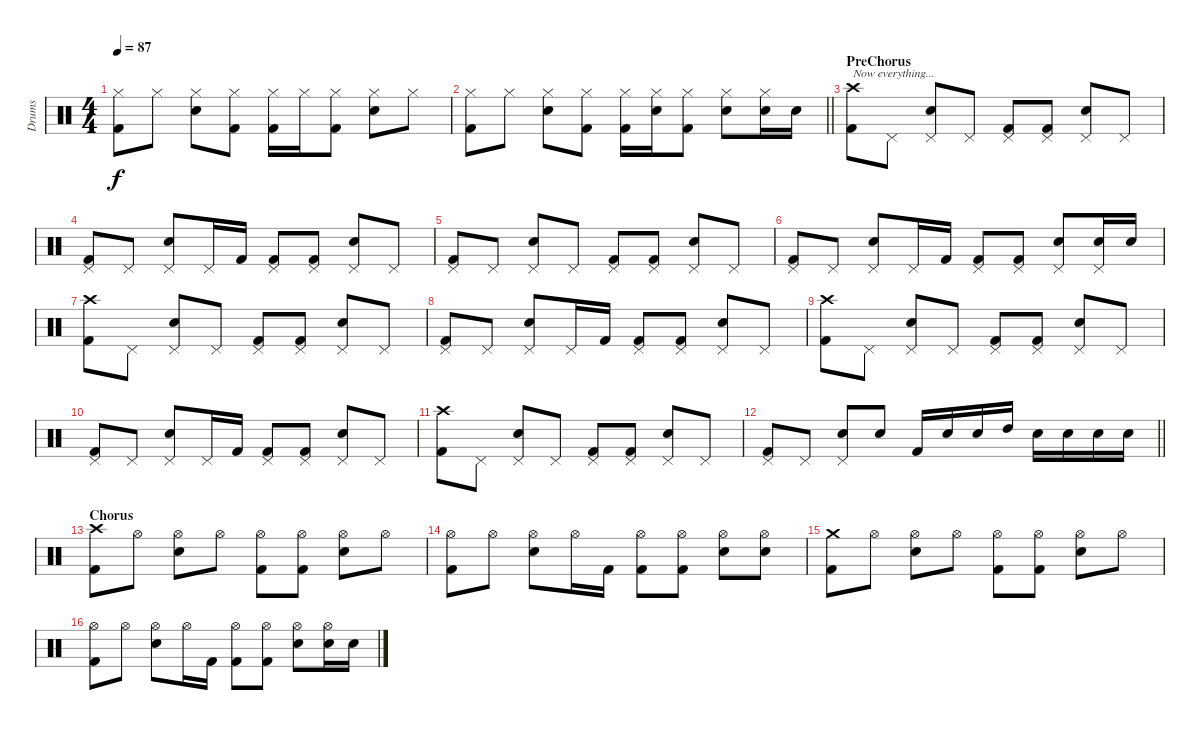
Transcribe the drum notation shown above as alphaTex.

\track ("Drums" "Drums") {instrument percussion}
\staff {score}
\articulation defaults
\ts (4 4)
\tempo 87
\clef neutral
\ks c
("Hi-Hat (closed)" "Kick (hit) 2").8{dy f} "Hi-Hat (closed)".8 ("Hi-Hat (closed)" "Electric Snare (hit)").8 ("Hi-Hat (closed)" "Kick (hit) 2").8 ("Hi-Hat (closed)" "Kick (hit) 2").16 "Hi-Hat (closed)".16 ("Hi-Hat (closed)" "Kick (hit) 2").8 ("Hi-Hat (closed)" "Electric Snare (hit)").8 "Hi-Hat (closed)".8 |
\barLineRight lightlight
("Hi-Hat (closed)" "Kick (hit) 2").8 "Hi-Hat (closed)".8 ("Hi-Hat (closed)" "Electric Snare (hit)").8 ("Hi-Hat (closed)" "Kick (hit) 2").8 ("Hi-Hat (closed)" "Kick (hit) 2").16 ("Hi-Hat (closed)" "Electric Snare (hit)").16 ("Hi-Hat (closed)" "Kick (hit) 2").8 ("Hi-Hat (closed)" "Electric Snare (hit)").8 ("Hi-Hat (closed)" "Electric Snare (hit)").16 "Electric Snare (hit)".16 |
\section ("" "PreChorus")
("Crash high (hit)" "Kick (hit) 2").8{txt "Now everything..."} "Pedal Hi-Hat (hit)".8 ("Pedal Hi-Hat (hit)" "Snare (hit) 2").8 "Pedal Hi-Hat (hit)".8 ("Pedal Hi-Hat (hit)" "Kick (hit) 2").8 ("Pedal Hi-Hat (hit)" "Kick (hit) 2").8 ("Pedal Hi-Hat (hit)" "Snare (hit) 2").8 "Pedal Hi-Hat (hit)".8 |
("Pedal Hi-Hat (hit)" "Kick (hit) 2").8 "Pedal Hi-Hat (hit)".8 ("Pedal Hi-Hat (hit)" "Snare (hit) 2").8 "Pedal Hi-Hat (hit)".16 "Kick (hit) 2".16 ("Pedal Hi-Hat (hit)" "Kick (hit) 2").8 ("Pedal Hi-Hat (hit)" "Kick (hit) 2").8 ("Pedal Hi-Hat (hit)" "Snare (hit) 2").8 "Pedal Hi-Hat (hit)".8 |
("Pedal Hi-Hat (hit)" "Kick (hit) 2").8 "Pedal Hi-Hat (hit)".8 ("Pedal Hi-Hat (hit)" "Snare (hit) 2").8 "Pedal Hi-Hat (hit)".8 ("Pedal Hi-Hat (hit)" "Kick (hit) 2").8 ("Pedal Hi-Hat (hit)" "Kick (hit) 2").8 ("Pedal Hi-Hat (hit)" "Snare (hit) 2").8 "Pedal Hi-Hat (hit)".8 |
("Pedal Hi-Hat (hit)" "Kick (hit) 2").8 "Pedal Hi-Hat (hit)".8 ("Pedal Hi-Hat (hit)" "Snare (hit) 2").8 "Pedal Hi-Hat (hit)".16 "Kick (hit) 2".16 ("Pedal Hi-Hat (hit)" "Kick (hit) 2").8 ("Pedal Hi-Hat (hit)" "Kick (hit) 2").8 ("Pedal Hi-Hat (hit)" "Snare (hit) 2").8 ("Pedal Hi-Hat (hit)" "Snare (hit) 2").16 "Snare (hit) 2".16 |
("Crash high (hit)" "Kick (hit) 2").8 "Pedal Hi-Hat (hit)".8 ("Pedal Hi-Hat (hit)" "Snare (hit) 2").8 "Pedal Hi-Hat (hit)".8 ("Pedal Hi-Hat (hit)" "Kick (hit) 2").8 ("Pedal Hi-Hat (hit)" "Kick (hit) 2").8 ("Pedal Hi-Hat (hit)" "Snare (hit) 2").8 "Pedal Hi-Hat (hit)".8 |
("Pedal Hi-Hat (hit)" "Kick (hit) 2").8 "Pedal Hi-Hat (hit)".8 ("Pedal Hi-Hat (hit)" "Snare (hit) 2").8 "Pedal Hi-Hat (hit)".16 "Kick (hit) 2".16 ("Pedal Hi-Hat (hit)" "Kick (hit) 2").8 ("Pedal Hi-Hat (hit)" "Kick (hit) 2").8 ("Pedal Hi-Hat (hit)" "Snare (hit) 2").8 "Pedal Hi-Hat (hit)".8 |
("Crash high (hit)" "Kick (hit) 2").8 "Pedal Hi-Hat (hit)".8 ("Pedal Hi-Hat (hit)" "Snare (hit) 2").8 "Pedal Hi-Hat (hit)".8 ("Pedal Hi-Hat (hit)" "Kick (hit) 2").8 ("Pedal Hi-Hat (hit)" "Kick (hit) 2").8 ("Pedal Hi-Hat (hit)" "Snare (hit) 2").8 "Pedal Hi-Hat (hit)".8 |
("Pedal Hi-Hat (hit)" "Kick (hit) 2").8 "Pedal Hi-Hat (hit)".8 ("Pedal Hi-Hat (hit)" "Snare (hit) 2").8 "Pedal Hi-Hat (hit)".16 "Kick (hit) 2".16 ("Pedal Hi-Hat (hit)" "Kick (hit) 2").8 ("Pedal Hi-Hat (hit)" "Kick (hit) 2").8 ("Pedal Hi-Hat (hit)" "Snare (hit) 2").8 "Pedal Hi-Hat (hit)".8 |
("Crash high (hit)" "Kick (hit) 2").8 "Pedal Hi-Hat (hit)".8 ("Pedal Hi-Hat (hit)" "Snare (hit) 2").8 "Pedal Hi-Hat (hit)".8 ("Pedal Hi-Hat (hit)" "Kick (hit) 2").8 ("Pedal Hi-Hat (hit)" "Kick (hit) 2").8 ("Pedal Hi-Hat (hit)" "Snare (hit) 2").8 "Pedal Hi-Hat (hit)".8 |
\barLineRight lightlight
("Pedal Hi-Hat (hit)" "Kick (hit) 2").8 "Pedal Hi-Hat (hit)".8 ("Pedal Hi-Hat (hit)" "Snare (hit) 2").8 "Snare (hit) 2".8 "Kick (hit) 2".16 "Snare (hit) 2".16 "Snare (hit) 2".16 "High Tom (hit)".16 "Snare (hit) 2".16 "Snare (hit) 2".16 "Snare (hit) 2".16 "Snare (hit) 2".16 |
\section ("" "Chorus")
("Crash high (hit)" "Kick (hit) 2").8 "Hi-Hat (open)".8 ("Hi-Hat (open)" "Snare (hit) 2").8 "Hi-Hat (open)".8 ("Hi-Hat (open)" "Kick (hit) 2").8 ("Hi-Hat (open)" "Kick (hit) 2").8 ("Hi-Hat (open)" "Snare (hit) 2").8 "Hi-Hat (open)".8 |
("Hi-Hat (open)" "Kick (hit) 2").8 "Hi-Hat (open)".8 ("Hi-Hat (open)" "Snare (hit) 2").8 "Hi-Hat (open)".16 "Kick (hit) 2".16 ("Hi-Hat (open)" "Kick (hit) 2").8 ("Hi-Hat (open)" "Kick (hit) 2").8 ("Hi-Hat (open)" "Snare (hit) 2").8 ("Hi-Hat (open)" "Snare (hit) 2").8 |
("Crash medium (hit)" "Kick (hit) 2").8 "Hi-Hat (open)".8 ("Hi-Hat (open)" "Snare (hit) 2").8 "Hi-Hat (open)".8 ("Hi-Hat (open)" "Kick (hit) 2").8 ("Hi-Hat (open)" "Kick (hit) 2").8 ("Hi-Hat (open)" "Snare (hit) 2").8 "Hi-Hat (open)".8 |
("Hi-Hat (open)" "Kick (hit) 2").8 "Hi-Hat (open)".8 ("Hi-Hat (open)" "Snare (hit) 2").8 "Hi-Hat (open)".16 "Kick (hit) 2".16 ("Hi-Hat (open)" "Kick (hit) 2").8 ("Hi-Hat (open)" "Kick (hit) 2").8 ("Hi-Hat (open)" "Snare (hit) 2").8 ("Hi-Hat (open)" "Snare (hit) 2").16 "Snare (hit) 2".16
